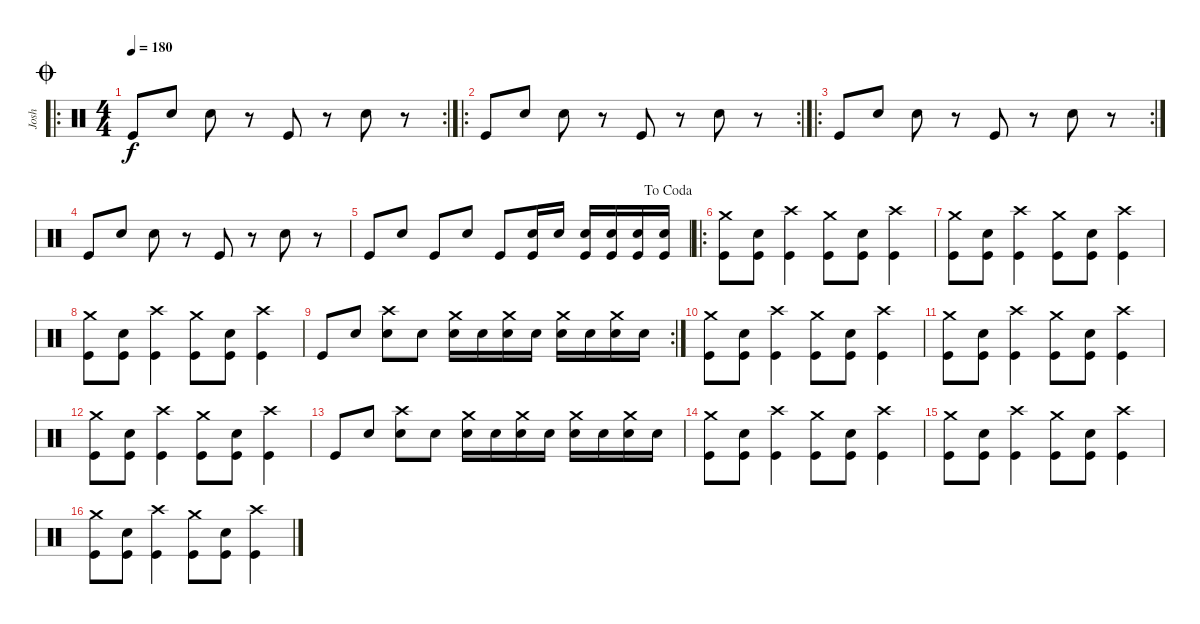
\track ("Josh" "Josh") {instrument percussion}
\staff {score}
\articulation defaults
\ro
\rc 2
\ts (4 4)
\jump coda
\tempo 180
\clef neutral
\ks c "Kick (hit)".8{dy f} "Electric Snare (hit)".8 "Electric Snare (hit)".8
r.8 "Kick (hit)".8 r.8 "Electric Snare (hit)".8 r.8 |
\ro
\rc 2 "Kick (hit)".8 "Electric Snare (hit)".8 "Electric Snare (hit)".8
r.8 "Kick (hit)".8 r.8 "Electric Snare (hit)".8 r.8 |
\ro
\rc 2 "Kick (hit)".8 "Electric Snare (hit)".8 "Electric Snare (hit)".8
r.8 "Kick (hit)".8 r.8 "Electric Snare (hit)".8 r.8 |
"Kick (hit)".8 "Electric Snare (hit)".8 "Electric Snare (hit)".8 r.8 "Kick (hit)".8 r.8 "Electric Snare (hit)".8 r.8 |
\jump dacoda "Kick (hit)".8 "Electric Snare (hit)".8 "Kick (hit)".8 "Electric Snare (hit)".8 "Kick (hit)".8
("Kick (hit)" "Electric Snare (hit)").16 "Electric Snare (hit)".16 ("Kick (hit)" "Electric Snare (hit)").16 ("Kick (hit)" "Electric Snare (hit)").16 ("Kick (hit)" "Electric Snare (hit)").16 ("Kick (hit)" "Electric Snare (hit)").16 |
\ro
("Kick (hit)" "Crash medium (hit)").8 ("Kick (hit)" "Electric Snare (hit)").8 ("Kick (hit)" "Crash high (hit)").4 ("Kick (hit)" "Crash medium (hit)").8 ("Kick (hit)" "Electric Snare (hit)").8 ("Kick (hit)" "Crash high (hit)").4 |
("Kick (hit)" "Crash medium (hit)").8 ("Kick (hit)" "Electric Snare (hit)").8 ("Kick (hit)" "Crash high (hit)").4 ("Kick (hit)" "Crash medium (hit)").8 ("Kick (hit)" "Electric Snare (hit)").8 ("Kick (hit)" "Crash high (hit)").4 |
("Kick (hit)" "Crash medium (hit)").8 ("Kick (hit)" "Electric Snare (hit)").8 ("Kick (hit)" "Crash high (hit)").4 ("Kick (hit)" "Crash medium (hit)").8 ("Kick (hit)" "Electric Snare (hit)").8 ("Kick (hit)" "Crash high (hit)").4 |
\rc 2 "Kick (hit)".8 "Electric Snare (hit)".8
("Electric Snare (hit)" "Crash high (hit)").8 "Electric Snare (hit)".8 ("Electric Snare (hit)" "Crash medium (hit)").16 "Electric Snare (hit)".16 ("Electric Snare (hit)" "Crash medium (hit)").16 "Electric Snare (hit)".16 ("Electric Snare (hit)" "Crash medium (hit)").16 "Electric Snare (hit)".16 ("Electric Snare (hit)" "Crash medium (hit)").16 "Electric Snare (hit)".16 |
("Kick (hit)" "Crash medium (hit)").8 ("Kick (hit)" "Electric Snare (hit)").8 ("Kick (hit)" "Crash high (hit)").4 ("Kick (hit)" "Crash medium (hit)").8 ("Kick (hit)" "Electric Snare (hit)").8 ("Kick (hit)" "Crash high (hit)").4 |
("Kick (hit)" "Crash medium (hit)").8 ("Kick (hit)" "Electric Snare (hit)").8 ("Kick (hit)" "Crash high (hit)").4 ("Kick (hit)" "Crash medium (hit)").8 ("Kick (hit)" "Electric Snare (hit)").8 ("Kick (hit)" "Crash high (hit)").4 |
("Kick (hit)" "Crash medium (hit)").8 ("Kick (hit)" "Electric Snare (hit)").8 ("Kick (hit)" "Crash high (hit)").4 ("Kick (hit)" "Crash medium (hit)").8 ("Kick (hit)" "Electric Snare (hit)").8 ("Kick (hit)" "Crash high (hit)").4 |
"Kick (hit)".8 "Electric Snare (hit)".8 ("Electric Snare (hit)" "Crash high (hit)").8 "Electric Snare (hit)".8 ("Electric Snare (hit)" "Crash medium (hit)").16 "Electric Snare (hit)".16 ("Electric Snare (hit)" "Crash medium (hit)").16 "Electric Snare (hit)".16 ("Electric Snare (hit)" "Crash medium (hit)").16 "Electric Snare (hit)".16 ("Electric Snare (hit)" "Crash medium (hit)").16 "Electric Snare (hit)".16 |
("Kick (hit)" "Crash medium (hit)").8 ("Kick (hit)" "Electric Snare (hit)").8 ("Kick (hit)" "Crash high (hit)").4 ("Kick (hit)" "Crash medium (hit)").8 ("Kick (hit)" "Electric Snare (hit)").8 ("Kick (hit)" "Crash high (hit)").4 |
("Kick (hit)" "Crash medium (hit)").8 ("Kick (hit)" "Electric Snare (hit)").8 ("Kick (hit)" "Crash high (hit)").4 ("Kick (hit)" "Crash medium (hit)").8 ("Kick (hit)" "Electric Snare (hit)").8 ("Kick (hit)" "Crash high (hit)").4 |
("Kick (hit)" "Crash medium (hit)").8 ("Kick (hit)" "Electric Snare (hit)").8 ("Kick (hit)" "Crash high (hit)").4 ("Kick (hit)" "Crash medium (hit)").8 ("Kick (hit)" "Electric Snare (hit)").8 ("Kick (hit)" "Crash high (hit)").4
